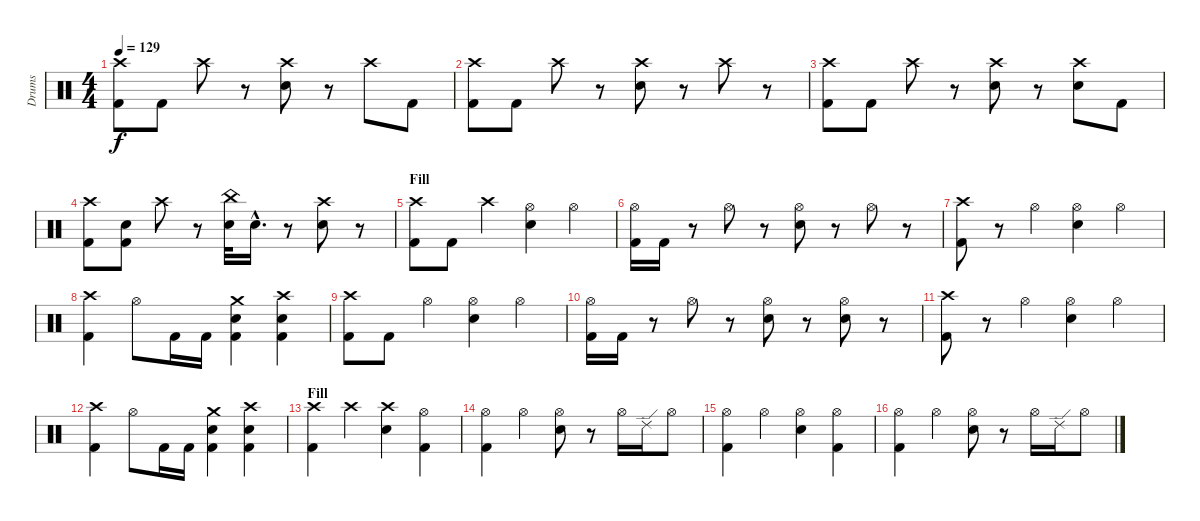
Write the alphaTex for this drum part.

\track ("Drums" "Drums") {instrument percussion}
\staff {score}
\articulation defaults
\ts (4 4)
\tempo 129
\clef neutral
\ks c
("Crash high (hit)" "Kick (hit) 2").8{dy f} "Kick (hit) 2".8 "Crash high (hit)".8 r.8 ("Crash high (hit)" "Snare (hit) 2").8 r.8 "Crash high (hit)".8 "Kick (hit) 2".8 |
("Crash high (hit)" "Kick (hit) 2").8 "Kick (hit) 2".8 "Crash high (hit)".8 r.8 ("Crash high (hit)" "Snare (hit) 2").8 r.8 "Crash high (hit)".8 r.8 |
("Crash high (hit)" "Kick (hit) 2").8 "Kick (hit) 2".8 "Crash high (hit)".8 r.8 ("Crash high (hit)" "Snare (hit) 2").8 r.8 ("Crash high (hit)" "Snare (hit) 2").8 "Kick (hit) 2".8 |
("Crash high (hit)" "Kick (hit) 2").8 ("Snare (hit) 2" "Kick (hit) 2").8 "Crash high (hit)".8 r.8 ("China (hit)" "Snare (hit) 2").32 "Snare (hit) 2"{hac}.16{d} r.8 ("Crash high (hit)" "Snare (hit) 2").8 r.8 |
\section ("" "Fill")
("Crash high (hit)" "Kick (hit) 2").8 "Kick (hit) 2".8 "Crash high (hit)".4 ("Hi-Hat (open)" "Snare (hit) 2").4 "Hi-Hat (open)".4 |
("Hi-Hat (open)" "Kick (hit) 2").16 "Kick (hit) 2".16 r.8 "Hi-Hat (open)".8 r.8 ("Hi-Hat (open)" "Snare (hit) 2").8 r.8 "Hi-Hat (open)".8 r.8 |
("Crash high (hit)" "Kick (hit) 2").8 r.8 "Hi-Hat (open)".4 ("Hi-Hat (open)" "Snare (hit) 2").4 "Hi-Hat (open)".4 |
("Crash high (hit)" "Kick (hit) 2").4 "Hi-Hat (open)".8 "Kick (hit) 2".16 "Kick (hit) 2".16 ("Crash medium (hit)" "Snare (hit) 2" "Kick (hit) 2").4 ("Crash high (hit)" "Snare (hit) 2" "Kick (hit) 2").4 |
("Crash high (hit)" "Kick (hit) 2").8 "Kick (hit) 2".8 "Hi-Hat (open)".4 ("Hi-Hat (open)" "Snare (hit) 2").4 "Hi-Hat (open)".4 |
("Hi-Hat (open)" "Kick (hit) 2").16 "Kick (hit) 2".16 r.8 "Hi-Hat (open)".8 r.8 ("Hi-Hat (open)" "Snare (hit) 2").8 r.8 ("Hi-Hat (open)" "Snare (hit) 2").8 r.8 |
("Crash high (hit)" "Kick (hit) 2").8 r.8 "Hi-Hat (open)".4 ("Hi-Hat (open)" "Snare (hit) 2").4 "Hi-Hat (open)".4 |
("Crash high (hit)" "Kick (hit) 2").4 "Hi-Hat (open)".8 "Kick (hit) 2".16 "Kick (hit) 2".16 ("Crash medium (hit)" "Snare (hit) 2" "Kick (hit) 2").4 ("Crash high (hit)" "Snare (hit) 2" "Kick (hit) 2").4 |
\section ("" "Fill")
("Crash high (hit)" "Kick (hit) 2").4 "Crash high (hit)".4 ("Crash high (hit)" "Snare (hit) 2").4 ("Hi-Hat (open)" "Kick (hit) 2").4 |
("Hi-Hat (open)" "Kick (hit) 2").4 "Hi-Hat (open)".4 ("Hi-Hat (open)" "Snare (hit) 2").8 r.8 "Hi-Hat (open)".16 "Ride (edge) 2".16 "Hi-Hat (open)".8 |
("Hi-Hat (open)" "Kick (hit) 2").4 "Hi-Hat (open)".4 ("Hi-Hat (open)" "Snare (hit) 2").4 ("Hi-Hat (open)" "Kick (hit) 2").4 |
("Hi-Hat (open)" "Kick (hit) 2").4 "Hi-Hat (open)".4 ("Hi-Hat (open)" "Snare (hit) 2").8 r.8 "Hi-Hat (open)".16 "Ride (edge) 2".16 "Hi-Hat (open)".8
